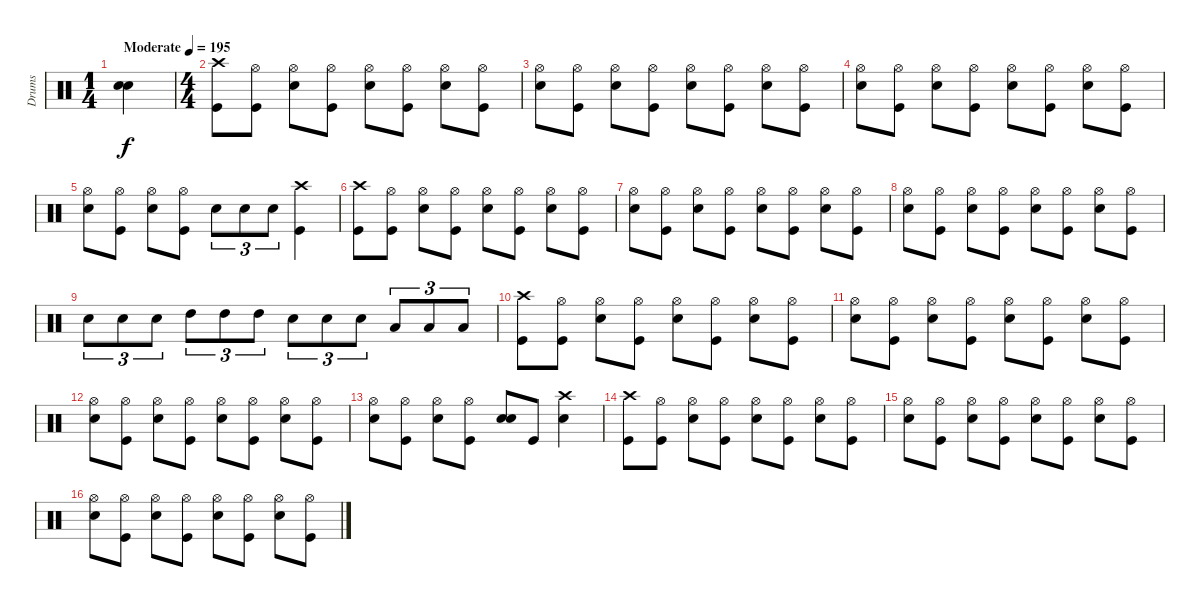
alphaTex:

\track ("Drums" "Drums") {instrument percussion}
\staff {score}
\articulation defaults
\ts (1 4)
\tempo (195 "Moderate")
\clef neutral
\ks c
("Snare (hit) 2" "Snare (hit) 2").4{dy f} |
\ts (4 4)
("Crash high (hit)" "Kick (hit)").8 ("Hi-Hat (open)" "Kick (hit)").8 ("Hi-Hat (open)" "Snare (hit) 2").8 ("Hi-Hat (open)" "Kick (hit)").8 ("Hi-Hat (open)" "Snare (hit) 2").8 ("Hi-Hat (open)" "Kick (hit)").8 ("Hi-Hat (open)" "Snare (hit) 2").8 ("Hi-Hat (open)" "Kick (hit)").8 |
("Hi-Hat (open)" "Snare (hit) 2").8 ("Hi-Hat (open)" "Kick (hit)").8 ("Hi-Hat (open)" "Snare (hit) 2").8 ("Hi-Hat (open)" "Kick (hit)").8 ("Hi-Hat (open)" "Snare (hit) 2").8 ("Hi-Hat (open)" "Kick (hit)").8 ("Hi-Hat (open)" "Snare (hit) 2").8 ("Hi-Hat (open)" "Kick (hit)").8 |
("Hi-Hat (open)" "Snare (hit) 2").8 ("Hi-Hat (open)" "Kick (hit)").8 ("Hi-Hat (open)" "Snare (hit) 2").8 ("Hi-Hat (open)" "Kick (hit)").8 ("Hi-Hat (open)" "Snare (hit) 2").8 ("Hi-Hat (open)" "Kick (hit)").8 ("Hi-Hat (open)" "Snare (hit) 2").8 ("Hi-Hat (open)" "Kick (hit)").8 |
("Hi-Hat (open)" "Snare (hit) 2").8 ("Hi-Hat (open)" "Kick (hit)").8 ("Hi-Hat (open)" "Snare (hit) 2").8 ("Hi-Hat (open)" "Kick (hit)").8 "Snare (hit) 2".8{tu (3 2)} "Snare (hit) 2".8{tu (3 2)} "Snare (hit) 2".8{tu (3 2)} ("Crash high (hit)" "Kick (hit)").4 |
("Crash high (hit)" "Kick (hit)").8 ("Hi-Hat (open)" "Kick (hit)").8 ("Hi-Hat (open)" "Snare (hit) 2").8 ("Hi-Hat (open)" "Kick (hit)").8 ("Hi-Hat (open)" "Snare (hit) 2").8 ("Hi-Hat (open)" "Kick (hit)").8 ("Hi-Hat (open)" "Snare (hit) 2").8 ("Hi-Hat (open)" "Kick (hit)").8 |
("Hi-Hat (open)" "Snare (hit) 2").8 ("Hi-Hat (open)" "Kick (hit)").8 ("Hi-Hat (open)" "Snare (hit) 2").8 ("Hi-Hat (open)" "Kick (hit)").8 ("Hi-Hat (open)" "Snare (hit) 2").8 ("Hi-Hat (open)" "Kick (hit)").8 ("Hi-Hat (open)" "Snare (hit) 2").8 ("Hi-Hat (open)" "Kick (hit)").8 |
("Hi-Hat (open)" "Snare (hit) 2").8 ("Hi-Hat (open)" "Kick (hit)").8 ("Hi-Hat (open)" "Snare (hit) 2").8 ("Hi-Hat (open)" "Kick (hit)").8 ("Hi-Hat (open)" "Snare (hit) 2").8 ("Hi-Hat (open)" "Kick (hit)").8 ("Hi-Hat (open)" "Snare (hit) 2").8 ("Hi-Hat (open)" "Kick (hit)").8 |
"Snare (hit) 2".8{tu (3 2)} "Snare (hit) 2".8{tu (3 2)} "Snare (hit) 2".8{tu (3 2)} "High Tom (hit)".8{tu (3 2)} "High Tom (hit)".8{tu (3 2)} "High Tom (hit)".8{tu (3 2)} "Snare (hit) 2".8{tu (3 2)} "Snare (hit) 2".8{tu (3 2)} "Snare (hit) 2".8{tu (3 2)} "Low Tom (hit)".8{tu (3 2)} "Low Tom (hit)".8{tu (3 2)} "Low Tom (hit)".8{tu (3 2)} |
("Crash high (hit)" "Kick (hit)").8 ("Hi-Hat (open)" "Kick (hit)").8 ("Hi-Hat (open)" "Snare (hit) 2").8 ("Hi-Hat (open)" "Kick (hit)").8 ("Hi-Hat (open)" "Snare (hit) 2").8 ("Hi-Hat (open)" "Kick (hit)").8 ("Hi-Hat (open)" "Snare (hit) 2").8 ("Hi-Hat (open)" "Kick (hit)").8 |
("Hi-Hat (open)" "Snare (hit) 2").8 ("Hi-Hat (open)" "Kick (hit)").8 ("Hi-Hat (open)" "Snare (hit) 2").8 ("Hi-Hat (open)" "Kick (hit)").8 ("Hi-Hat (open)" "Snare (hit) 2").8 ("Hi-Hat (open)" "Kick (hit)").8 ("Hi-Hat (open)" "Snare (hit) 2").8 ("Hi-Hat (open)" "Kick (hit)").8 |
("Hi-Hat (open)" "Snare (hit) 2").8 ("Hi-Hat (open)" "Kick (hit)").8 ("Hi-Hat (open)" "Snare (hit) 2").8 ("Hi-Hat (open)" "Kick (hit)").8 ("Hi-Hat (open)" "Snare (hit) 2").8 ("Hi-Hat (open)" "Kick (hit)").8 ("Hi-Hat (open)" "Snare (hit) 2").8 ("Hi-Hat (open)" "Kick (hit)").8 |
("Hi-Hat (open)" "Snare (hit) 2").8 ("Hi-Hat (open)" "Kick (hit)").8 ("Hi-Hat (open)" "Snare (hit) 2").8 ("Hi-Hat (open)" "Kick (hit)").8 ("Snare (hit) 2" "Snare (hit) 2").8{bd 480} "Kick (hit)".8 ("Crash high (hit)" "Snare (hit) 2").4 |
("Crash high (hit)" "Kick (hit)").8 ("Hi-Hat (open)" "Kick (hit)").8 ("Hi-Hat (open)" "Snare (hit) 2").8 ("Hi-Hat (open)" "Kick (hit)").8 ("Hi-Hat (open)" "Snare (hit) 2").8 ("Hi-Hat (open)" "Kick (hit)").8 ("Hi-Hat (open)" "Snare (hit) 2").8 ("Hi-Hat (open)" "Kick (hit)").8 |
("Hi-Hat (open)" "Snare (hit) 2").8 ("Hi-Hat (open)" "Kick (hit)").8 ("Hi-Hat (open)" "Snare (hit) 2").8 ("Hi-Hat (open)" "Kick (hit)").8 ("Hi-Hat (open)" "Snare (hit) 2").8 ("Hi-Hat (open)" "Kick (hit)").8 ("Hi-Hat (open)" "Snare (hit) 2").8 ("Hi-Hat (open)" "Kick (hit)").8 |
("Hi-Hat (open)" "Snare (hit) 2").8 ("Hi-Hat (open)" "Kick (hit)").8 ("Hi-Hat (open)" "Snare (hit) 2").8 ("Hi-Hat (open)" "Kick (hit)").8 ("Hi-Hat (open)" "Snare (hit) 2").8 ("Hi-Hat (open)" "Kick (hit)").8 ("Hi-Hat (open)" "Snare (hit) 2").8 ("Hi-Hat (open)" "Kick (hit)").8
